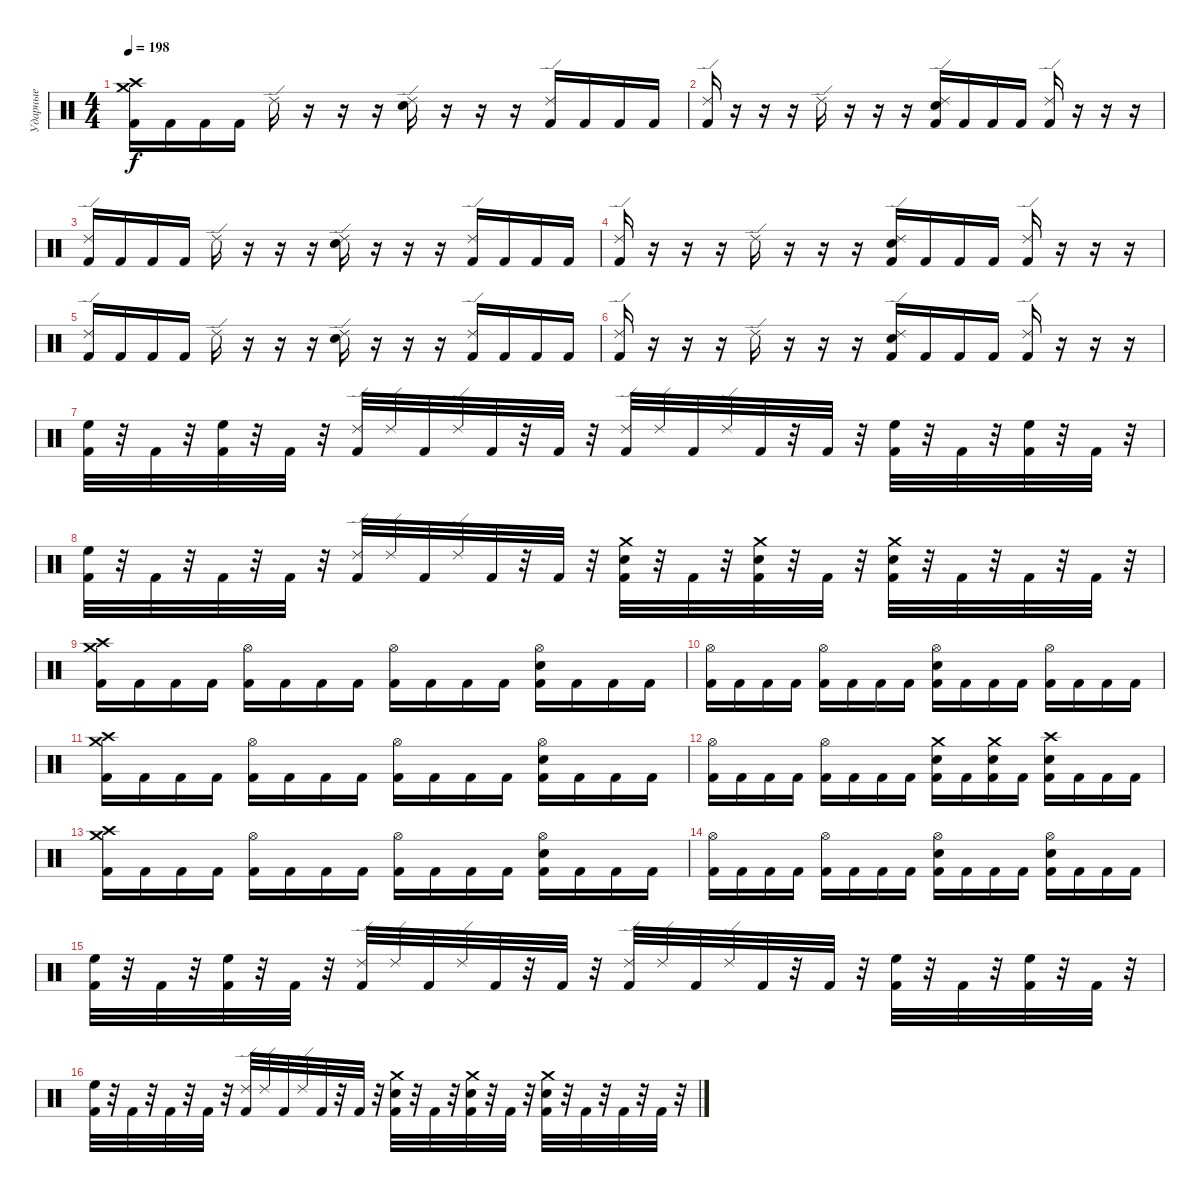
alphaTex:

\track ("Ударные" "Ударные") {instrument percussion}
\staff {score}
\articulation defaults
\ts (4 4)
\tempo 198
\clef neutral
\ks c
("Crash medium (hit)" "Crash high (hit)" "Kick (hit) 2").16{dy f} "Kick (hit) 2".16 "Kick (hit) 2".16 "Kick (hit) 2".16 "Ride (edge) 2".16 r.16 r.16 r.16 ("Ride (edge) 2" "Electric Snare (hit)").16 r.16 r.16 r.16 ("Ride (edge) 2" "Kick (hit) 2").16 "Kick (hit) 2".16 "Kick (hit) 2".16 "Kick (hit) 2".16 |
("Ride (edge) 2" "Kick (hit) 2").16 r.16 r.16 r.16 "Ride (edge) 2".16 r.16 r.16 r.16 ("Ride (edge) 2" "Electric Snare (hit)" "Kick (hit) 2").16 "Kick (hit) 2".16 "Kick (hit) 2".16 "Kick (hit) 2".16 ("Ride (edge) 2" "Kick (hit) 2").16 r.16 r.16 r.16 |
("Ride (edge) 2" "Kick (hit) 2").16 "Kick (hit) 2".16 "Kick (hit) 2".16 "Kick (hit) 2".16 "Ride (edge) 2".16 r.16 r.16 r.16 ("Ride (edge) 2" "Electric Snare (hit)").16 r.16 r.16 r.16 ("Ride (edge) 2" "Kick (hit) 2").16 "Kick (hit) 2".16 "Kick (hit) 2".16 "Kick (hit) 2".16 |
("Ride (edge) 2" "Kick (hit) 2").16 r.16 r.16 r.16 "Ride (edge) 2".16 r.16 r.16 r.16 ("Ride (edge) 2" "Electric Snare (hit)" "Kick (hit) 2").16 "Kick (hit) 2".16 "Kick (hit) 2".16 "Kick (hit) 2".16 ("Ride (edge) 2" "Kick (hit) 2").16 r.16 r.16 r.16 |
("Ride (edge) 2" "Kick (hit) 2").16 "Kick (hit) 2".16 "Kick (hit) 2".16 "Kick (hit) 2".16 "Ride (edge) 2".16 r.16 r.16 r.16 ("Ride (edge) 2" "Electric Snare (hit)").16 r.16 r.16 r.16 ("Ride (edge) 2" "Kick (hit) 2").16 "Kick (hit) 2".16 "Kick (hit) 2".16 "Kick (hit) 2".16 |
("Ride (edge) 2" "Kick (hit) 2").16 r.16 r.16 r.16 "Ride (edge) 2".16 r.16 r.16 r.16 ("Ride (edge) 2" "Electric Snare (hit)" "Kick (hit) 2").16 "Kick (hit) 2".16 "Kick (hit) 2".16 "Kick (hit) 2".16 ("Ride (edge) 2" "Kick (hit) 2").16 r.16 r.16 r.16 |
("Kick (hit) 2" "High Floor Tom (hit)").32 r.32 "Kick (hit) 2".32 r.32 ("Kick (hit) 2" "High Floor Tom (hit)").32 r.32 "Kick (hit) 2".32 r.32 ("Kick (hit) 2" "Ride (edge) 2").32 "Ride (edge) 2".32 "Kick (hit) 2".32 "Ride (edge) 2".32 "Kick (hit) 2".32 r.32 "Kick (hit) 2".32 r.32 ("Kick (hit) 2" "Ride (edge) 2").32 "Ride (edge) 2".32 "Kick (hit) 2".32 "Ride (edge) 2".32 "Kick (hit) 2".32 r.32 "Kick (hit) 2".32 r.32 ("Kick (hit) 2" "High Floor Tom (hit)").32 r.32 "Kick (hit) 2".32 r.32 ("Kick (hit) 2" "High Floor Tom (hit)").32 r.32 "Kick (hit) 2".32 r.32 |
("Kick (hit) 2" "High Floor Tom (hit)").32 r.32 "Kick (hit) 2".32 r.32 "Kick (hit) 2".32 r.32 "Kick (hit) 2".32 r.32 ("Kick (hit) 2" "Ride (edge) 2").32 "Ride (edge) 2".32 "Kick (hit) 2".32 "Ride (edge) 2".32 "Kick (hit) 2".32 r.32 "Kick (hit) 2".32 r.32 ("Kick (hit) 2" "Electric Snare (hit)" "Crash medium (hit)").32 r.32 "Kick (hit) 2".32 r.32 ("Kick (hit) 2" "Electric Snare (hit)" "Crash medium (hit)").32 r.32 "Kick (hit) 2".32 r.32 ("Kick (hit) 2" "Electric Snare (hit)" "Crash medium (hit)").32 r.32 "Kick (hit) 2".32 r.32 "Kick (hit) 2".32 r.32 "Kick (hit) 2".32 r.32 |
("Kick (hit) 2" "Crash medium (hit)" "Crash high (hit)").16 "Kick (hit) 2".16 "Kick (hit) 2".16 "Kick (hit) 2".16 ("Kick (hit) 2" "Hi-Hat (open)").16 "Kick (hit) 2".16 "Kick (hit) 2".16 "Kick (hit) 2".16 ("Kick (hit) 2" "Hi-Hat (open)").16 "Kick (hit) 2".16 "Kick (hit) 2".16 "Kick (hit) 2".16 ("Kick (hit) 2" "Hi-Hat (open)" "Electric Snare (hit)").16 "Kick (hit) 2".16 "Kick (hit) 2".16 "Kick (hit) 2".16 |
("Kick (hit) 2" "Hi-Hat (open)").16 "Kick (hit) 2".16 "Kick (hit) 2".16 "Kick (hit) 2".16 ("Kick (hit) 2" "Hi-Hat (open)").16 "Kick (hit) 2".16 "Kick (hit) 2".16 "Kick (hit) 2".16 ("Kick (hit) 2" "Hi-Hat (open)" "Electric Snare (hit)").16 "Kick (hit) 2".16 "Kick (hit) 2".16 "Kick (hit) 2".16 ("Kick (hit) 2" "Hi-Hat (open)").16 "Kick (hit) 2".16 "Kick (hit) 2".16 "Kick (hit) 2".16 |
("Kick (hit) 2" "Crash medium (hit)" "Crash high (hit)").16 "Kick (hit) 2".16 "Kick (hit) 2".16 "Kick (hit) 2".16 ("Kick (hit) 2" "Hi-Hat (open)").16 "Kick (hit) 2".16 "Kick (hit) 2".16 "Kick (hit) 2".16 ("Kick (hit) 2" "Hi-Hat (open)").16 "Kick (hit) 2".16 "Kick (hit) 2".16 "Kick (hit) 2".16 ("Kick (hit) 2" "Hi-Hat (open)" "Electric Snare (hit)").16 "Kick (hit) 2".16 "Kick (hit) 2".16 "Kick (hit) 2".16 |
("Kick (hit) 2" "Hi-Hat (open)").16 "Kick (hit) 2".16 "Kick (hit) 2".16 "Kick (hit) 2".16 ("Kick (hit) 2" "Hi-Hat (open)").16 "Kick (hit) 2".16 "Kick (hit) 2".16 "Kick (hit) 2".16 ("Kick (hit) 2" "Crash medium (hit)" "Electric Snare (hit)").16 "Kick (hit) 2".16 ("Kick (hit) 2" "Crash medium (hit)" "Electric Snare (hit)").16 "Kick (hit) 2".16 ("Kick (hit) 2" "Crash high (hit)" "Electric Snare (hit)").16 "Kick (hit) 2".16 "Kick (hit) 2".16 "Kick (hit) 2".16 |
("Kick (hit) 2" "Crash medium (hit)" "Crash high (hit)").16 "Kick (hit) 2".16 "Kick (hit) 2".16 "Kick (hit) 2".16 ("Kick (hit) 2" "Hi-Hat (open)").16 "Kick (hit) 2".16 "Kick (hit) 2".16 "Kick (hit) 2".16 ("Kick (hit) 2" "Hi-Hat (open)").16 "Kick (hit) 2".16 "Kick (hit) 2".16 "Kick (hit) 2".16 ("Kick (hit) 2" "Hi-Hat (open)" "Electric Snare (hit)").16 "Kick (hit) 2".16 "Kick (hit) 2".16 "Kick (hit) 2".16 |
("Kick (hit) 2" "Hi-Hat (open)").16 "Kick (hit) 2".16 "Kick (hit) 2".16 "Kick (hit) 2".16 ("Kick (hit) 2" "Hi-Hat (open)").16 "Kick (hit) 2".16 "Kick (hit) 2".16 "Kick (hit) 2".16 ("Kick (hit) 2" "Hi-Hat (open)" "Electric Snare (hit)").16 "Kick (hit) 2".16 "Kick (hit) 2".16 "Kick (hit) 2".16 ("Kick (hit) 2" "Hi-Hat (open)" "Electric Snare (hit)").16 "Kick (hit) 2".16 "Kick (hit) 2".16 "Kick (hit) 2".16 |
("Kick (hit) 2" "High Floor Tom (hit)").32 r.32 "Kick (hit) 2".32 r.32 ("Kick (hit) 2" "High Floor Tom (hit)").32 r.32 "Kick (hit) 2".32 r.32 ("Kick (hit) 2" "Ride (edge) 2").32 "Ride (edge) 2".32 "Kick (hit) 2".32 "Ride (edge) 2".32 "Kick (hit) 2".32 r.32 "Kick (hit) 2".32 r.32 ("Kick (hit) 2" "Ride (edge) 2").32 "Ride (edge) 2".32 "Kick (hit) 2".32 "Ride (edge) 2".32 "Kick (hit) 2".32 r.32 "Kick (hit) 2".32 r.32 ("Kick (hit) 2" "High Floor Tom (hit)").32 r.32 "Kick (hit) 2".32 r.32 ("Kick (hit) 2" "High Floor Tom (hit)").32 r.32 "Kick (hit) 2".32 r.32 |
("Kick (hit) 2" "High Floor Tom (hit)").32 r.32 "Kick (hit) 2".32 r.32 "Kick (hit) 2".32 r.32 "Kick (hit) 2".32 r.32 ("Kick (hit) 2" "Ride (edge) 2").32 "Ride (edge) 2".32 "Kick (hit) 2".32 "Ride (edge) 2".32 "Kick (hit) 2".32 r.32 "Kick (hit) 2".32 r.32 ("Kick (hit) 2" "Electric Snare (hit)" "Crash medium (hit)").32 r.32 "Kick (hit) 2".32 r.32 ("Kick (hit) 2" "Electric Snare (hit)" "Crash medium (hit)").32 r.32 "Kick (hit) 2".32 r.32 ("Kick (hit) 2" "Electric Snare (hit)" "Crash medium (hit)").32 r.32 "Kick (hit) 2".32 r.32 "Kick (hit) 2".32 r.32 "Kick (hit) 2".32 r.32
